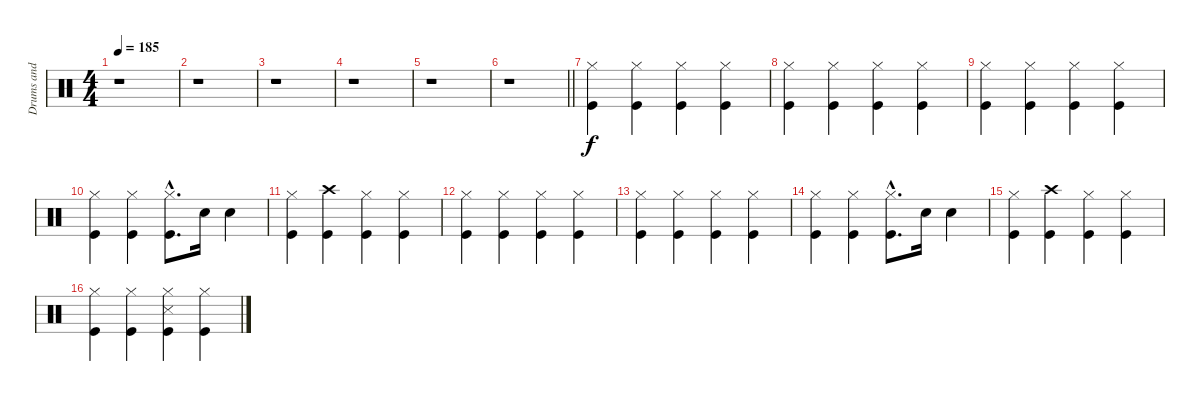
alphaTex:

\track ("Drums and percussion" "Drums and ") {instrument percussion}
\staff {score}
\articulation defaults
\ts (4 4)
\tempo 185
\clef neutral
\ks c
r.1{dy f} |
r.1 |
r.1 |
r.1 |
r.1 |
\barLineRight lightlight
r.1 |
("Hi-Hat (closed)" "Kick (hit)").4 ("Hi-Hat (closed)" "Kick (hit)").4 ("Hi-Hat (closed)" "Kick (hit)").4 ("Hi-Hat (closed)" "Kick (hit)").4 |
("Hi-Hat (closed)" "Kick (hit)").4 ("Hi-Hat (closed)" "Kick (hit)").4 ("Hi-Hat (closed)" "Kick (hit)").4 ("Hi-Hat (closed)" "Kick (hit)").4 |
("Hi-Hat (closed)" "Kick (hit)").4 ("Hi-Hat (closed)" "Kick (hit)").4 ("Hi-Hat (closed)" "Kick (hit)").4 ("Hi-Hat (closed)" "Kick (hit)").4 |
("Hi-Hat (closed)" "Kick (hit)").4 ("Hi-Hat (closed)" "Kick (hit)").4 ("Hi-Hat (closed)"{hac} "Kick (hit)"{hac}).8{d} "Snare (hit) 2".16 "Snare (hit) 2".4 |
("Hi-Hat (closed)" "Kick (hit)").4 ("Crash high (hit)" "Kick (hit)").4 ("Hi-Hat (closed)" "Kick (hit)").4 ("Hi-Hat (closed)" "Kick (hit)").4 |
("Hi-Hat (closed)" "Kick (hit)").4 ("Hi-Hat (closed)" "Kick (hit)").4 ("Hi-Hat (closed)" "Kick (hit)").4 ("Hi-Hat (closed)" "Kick (hit)").4 |
("Hi-Hat (closed)" "Kick (hit)").4 ("Hi-Hat (closed)" "Kick (hit)").4 ("Hi-Hat (closed)" "Kick (hit)").4 ("Hi-Hat (closed)" "Kick (hit)").4 |
("Hi-Hat (closed)" "Kick (hit)").4 ("Hi-Hat (closed)" "Kick (hit)").4 ("Hi-Hat (closed)"{hac} "Kick (hit)"{hac}).8{d} "Snare (hit) 2".16 "Snare (hit) 2".4 |
("Hi-Hat (closed)" "Kick (hit)").4 ("Crash high (hit)" "Kick (hit)").4 ("Hi-Hat (closed)" "Kick (hit)").4 ("Hi-Hat (closed)" "Kick (hit)").4 |
("Hi-Hat (closed)" "Kick (hit)").4 ("Hi-Hat (closed)" "Kick (hit)").4 ("Hi-Hat (closed)" "Snare (side stick) 3" "Kick (hit)").4 ("Hi-Hat (closed)" "Kick (hit)").4
